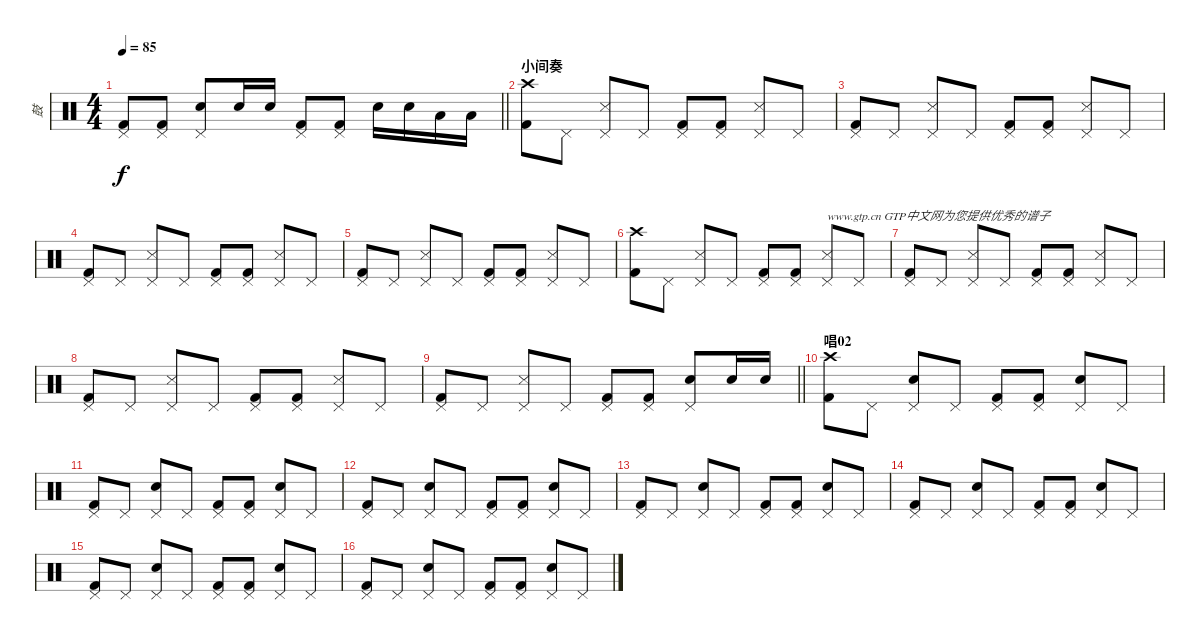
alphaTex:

\track ("鼓" "鼓") {instrument percussion}
\staff {score}
\articulation defaults
\ts (4 4)
\tempo 85
\clef neutral
\barLineRight lightlight
\ks c
("Pedal Hi-Hat (hit)" "Kick (hit) 2").8{dy f} ("Pedal Hi-Hat (hit)" "Kick (hit) 2").8 ("Pedal Hi-Hat (hit)" "Electric Snare (hit)").8 "Electric Snare (hit)".16 "Electric Snare (hit)".16 ("Pedal Hi-Hat (hit)" "Kick (hit) 2").8 ("Pedal Hi-Hat (hit)" "Kick (hit) 2").8 "Electric Snare (hit)".16 "Electric Snare (hit)".16 "Low Floor Tom (hit)".16 "Low Floor Tom (hit)".16 |
\section ("" "小间奏")
("Crash high (hit)" "Kick (hit) 2").8 "Pedal Hi-Hat (hit)".8 ("Pedal Hi-Hat (hit)" "Snare (side stick) 3").8 "Pedal Hi-Hat (hit)".8 ("Pedal Hi-Hat (hit)" "Kick (hit) 2").8 ("Pedal Hi-Hat (hit)" "Kick (hit) 2").8 ("Pedal Hi-Hat (hit)" "Snare (side stick) 3").8 "Pedal Hi-Hat (hit)".8 |
("Pedal Hi-Hat (hit)" "Kick (hit) 2").8 "Pedal Hi-Hat (hit)".8 ("Pedal Hi-Hat (hit)" "Snare (side stick) 3").8 "Pedal Hi-Hat (hit)".8 ("Pedal Hi-Hat (hit)" "Kick (hit) 2").8 ("Pedal Hi-Hat (hit)" "Kick (hit) 2").8 ("Pedal Hi-Hat (hit)" "Snare (side stick) 3").8 "Pedal Hi-Hat (hit)".8 |
("Pedal Hi-Hat (hit)" "Kick (hit) 2").8 "Pedal Hi-Hat (hit)".8 ("Pedal Hi-Hat (hit)" "Snare (side stick) 3").8 "Pedal Hi-Hat (hit)".8 ("Pedal Hi-Hat (hit)" "Kick (hit) 2").8 ("Pedal Hi-Hat (hit)" "Kick (hit) 2").8 ("Pedal Hi-Hat (hit)" "Snare (side stick) 3").8 "Pedal Hi-Hat (hit)".8 |
("Pedal Hi-Hat (hit)" "Kick (hit) 2").8 "Pedal Hi-Hat (hit)".8 ("Pedal Hi-Hat (hit)" "Snare (side stick) 3").8 "Pedal Hi-Hat (hit)".8 ("Pedal Hi-Hat (hit)" "Kick (hit) 2").8 ("Pedal Hi-Hat (hit)" "Kick (hit) 2").8 ("Pedal Hi-Hat (hit)" "Snare (side stick) 3").8 "Pedal Hi-Hat (hit)".8 |
("Crash high (hit)" "Kick (hit) 2").8 "Pedal Hi-Hat (hit)".8 ("Pedal Hi-Hat (hit)" "Snare (side stick) 3").8 "Pedal Hi-Hat (hit)".8 ("Pedal Hi-Hat (hit)" "Kick (hit) 2").8 ("Pedal Hi-Hat (hit)" "Kick (hit) 2").8 ("Pedal Hi-Hat (hit)" "Snare (side stick) 3").8{txt "www.gtp.cn GTP中文网为您提供优秀的谱子"} "Pedal Hi-Hat (hit)".8 |
("Pedal Hi-Hat (hit)" "Kick (hit) 2").8 "Pedal Hi-Hat (hit)".8 ("Pedal Hi-Hat (hit)" "Snare (side stick) 3").8 "Pedal Hi-Hat (hit)".8 ("Pedal Hi-Hat (hit)" "Kick (hit) 2").8 ("Pedal Hi-Hat (hit)" "Kick (hit) 2").8 ("Pedal Hi-Hat (hit)" "Snare (side stick) 3").8 "Pedal Hi-Hat (hit)".8 |
("Pedal Hi-Hat (hit)" "Kick (hit) 2").8 "Pedal Hi-Hat (hit)".8 ("Pedal Hi-Hat (hit)" "Snare (side stick) 3").8 "Pedal Hi-Hat (hit)".8 ("Pedal Hi-Hat (hit)" "Kick (hit) 2").8 ("Pedal Hi-Hat (hit)" "Kick (hit) 2").8 ("Pedal Hi-Hat (hit)" "Snare (side stick) 3").8 "Pedal Hi-Hat (hit)".8 |
\barLineRight lightlight
("Pedal Hi-Hat (hit)" "Kick (hit) 2").8 "Pedal Hi-Hat (hit)".8 ("Pedal Hi-Hat (hit)" "Snare (side stick) 3").8 "Pedal Hi-Hat (hit)".8 ("Pedal Hi-Hat (hit)" "Kick (hit) 2").8 ("Pedal Hi-Hat (hit)" "Kick (hit) 2").8 ("Pedal Hi-Hat (hit)" "Electric Snare (hit)").8 "Electric Snare (hit)".16 "Electric Snare (hit)".16 |
\section ("" "唱02")
("Crash high (hit)" "Kick (hit) 2").8 "Pedal Hi-Hat (hit)".8 ("Pedal Hi-Hat (hit)" "Electric Snare (hit)").8 "Pedal Hi-Hat (hit)".8 ("Pedal Hi-Hat (hit)" "Kick (hit) 2").8 ("Pedal Hi-Hat (hit)" "Kick (hit) 2").8 ("Pedal Hi-Hat (hit)" "Electric Snare (hit)").8 "Pedal Hi-Hat (hit)".8 |
("Pedal Hi-Hat (hit)" "Kick (hit) 2").8 "Pedal Hi-Hat (hit)".8 ("Pedal Hi-Hat (hit)" "Electric Snare (hit)").8 "Pedal Hi-Hat (hit)".8 ("Pedal Hi-Hat (hit)" "Kick (hit) 2").8 ("Pedal Hi-Hat (hit)" "Kick (hit) 2").8 ("Pedal Hi-Hat (hit)" "Electric Snare (hit)").8 "Pedal Hi-Hat (hit)".8 |
("Pedal Hi-Hat (hit)" "Kick (hit) 2").8 "Pedal Hi-Hat (hit)".8 ("Pedal Hi-Hat (hit)" "Electric Snare (hit)").8 "Pedal Hi-Hat (hit)".8 ("Pedal Hi-Hat (hit)" "Kick (hit) 2").8 ("Pedal Hi-Hat (hit)" "Kick (hit) 2").8 ("Pedal Hi-Hat (hit)" "Electric Snare (hit)").8 "Pedal Hi-Hat (hit)".8 |
("Pedal Hi-Hat (hit)" "Kick (hit) 2").8 "Pedal Hi-Hat (hit)".8 ("Pedal Hi-Hat (hit)" "Electric Snare (hit)").8 "Pedal Hi-Hat (hit)".8 ("Pedal Hi-Hat (hit)" "Kick (hit) 2").8 ("Pedal Hi-Hat (hit)" "Kick (hit) 2").8 ("Pedal Hi-Hat (hit)" "Electric Snare (hit)").8 "Pedal Hi-Hat (hit)".8 |
("Pedal Hi-Hat (hit)" "Kick (hit) 2").8 "Pedal Hi-Hat (hit)".8 ("Pedal Hi-Hat (hit)" "Electric Snare (hit)").8 "Pedal Hi-Hat (hit)".8 ("Pedal Hi-Hat (hit)" "Kick (hit) 2").8 ("Pedal Hi-Hat (hit)" "Kick (hit) 2").8 ("Pedal Hi-Hat (hit)" "Electric Snare (hit)").8 "Pedal Hi-Hat (hit)".8 |
("Pedal Hi-Hat (hit)" "Kick (hit) 2").8 "Pedal Hi-Hat (hit)".8 ("Pedal Hi-Hat (hit)" "Electric Snare (hit)").8 "Pedal Hi-Hat (hit)".8 ("Pedal Hi-Hat (hit)" "Kick (hit) 2").8 ("Pedal Hi-Hat (hit)" "Kick (hit) 2").8 ("Pedal Hi-Hat (hit)" "Electric Snare (hit)").8 "Pedal Hi-Hat (hit)".8 |
("Pedal Hi-Hat (hit)" "Kick (hit) 2").8 "Pedal Hi-Hat (hit)".8 ("Pedal Hi-Hat (hit)" "Electric Snare (hit)").8 "Pedal Hi-Hat (hit)".8 ("Pedal Hi-Hat (hit)" "Kick (hit) 2").8 ("Pedal Hi-Hat (hit)" "Kick (hit) 2").8 ("Pedal Hi-Hat (hit)" "Electric Snare (hit)").8 "Pedal Hi-Hat (hit)".8
